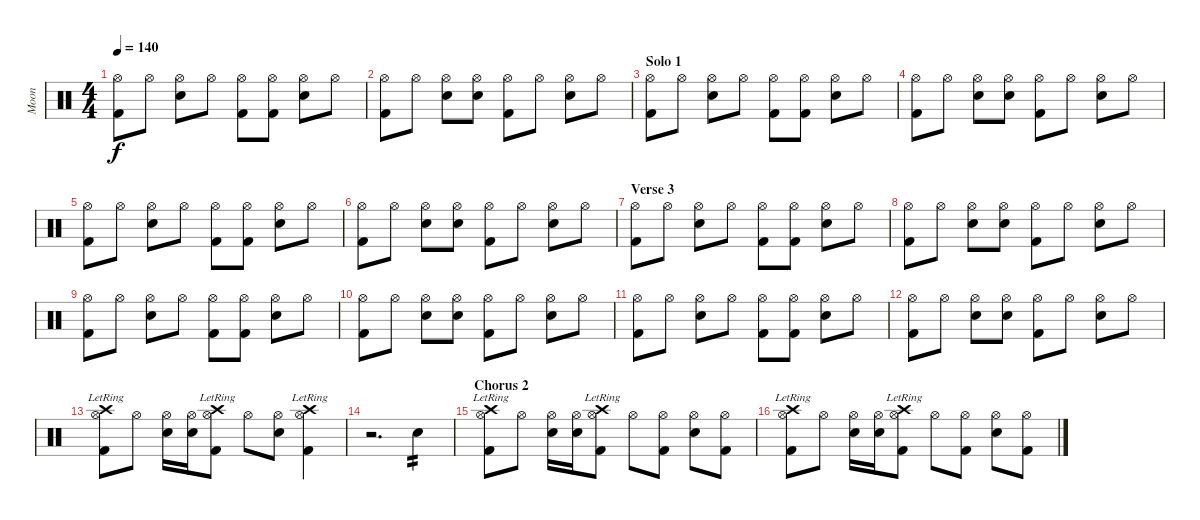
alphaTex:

\track ("Moon" "Moon") {instrument percussion}
\staff {score}
\articulation defaults
\ts (4 4)
\tempo 140
\clef neutral
\ks c
("Hi-Hat (open)" "Kick (hit) 2").8{dy f} "Hi-Hat (open)".8 ("Hi-Hat (open)" "Snare (hit) 2").8 "Hi-Hat (open)".8 ("Hi-Hat (open)" "Kick (hit) 2").8 ("Hi-Hat (open)" "Kick (hit) 2").8 ("Hi-Hat (open)" "Snare (hit) 2").8 "Hi-Hat (open)".8 |
("Hi-Hat (open)" "Kick (hit) 2").8 "Hi-Hat (open)".8 ("Hi-Hat (open)" "Snare (hit) 2").8 ("Hi-Hat (open)" "Snare (hit) 2").8 ("Hi-Hat (open)" "Kick (hit) 2").8 "Hi-Hat (open)".8 ("Hi-Hat (open)" "Snare (hit) 2").8 "Hi-Hat (open)".8 |
\section ("" "Solo 1")
("Hi-Hat (open)" "Kick (hit) 2").8 "Hi-Hat (open)".8 ("Hi-Hat (open)" "Snare (hit) 2").8 "Hi-Hat (open)".8 ("Hi-Hat (open)" "Kick (hit) 2").8 ("Hi-Hat (open)" "Kick (hit) 2").8 ("Hi-Hat (open)" "Snare (hit) 2").8 "Hi-Hat (open)".8 |
("Hi-Hat (open)" "Kick (hit) 2").8 "Hi-Hat (open)".8 ("Hi-Hat (open)" "Snare (hit) 2").8 ("Hi-Hat (open)" "Snare (hit) 2").8 ("Hi-Hat (open)" "Kick (hit) 2").8 "Hi-Hat (open)".8 ("Hi-Hat (open)" "Snare (hit) 2").8 "Hi-Hat (open)".8 |
("Hi-Hat (open)" "Kick (hit) 2").8 "Hi-Hat (open)".8 ("Hi-Hat (open)" "Snare (hit) 2").8 "Hi-Hat (open)".8 ("Hi-Hat (open)" "Kick (hit) 2").8 ("Hi-Hat (open)" "Kick (hit) 2").8 ("Hi-Hat (open)" "Snare (hit) 2").8 "Hi-Hat (open)".8 |
("Hi-Hat (open)" "Kick (hit) 2").8 "Hi-Hat (open)".8 ("Hi-Hat (open)" "Snare (hit) 2").8 ("Hi-Hat (open)" "Snare (hit) 2").8 ("Hi-Hat (open)" "Kick (hit) 2").8 "Hi-Hat (open)".8 ("Hi-Hat (open)" "Snare (hit) 2").8 "Hi-Hat (open)".8 |
\section ("" "Verse 3")
("Hi-Hat (open)" "Kick (hit) 2").8 "Hi-Hat (open)".8 ("Hi-Hat (open)" "Snare (hit) 2").8 "Hi-Hat (open)".8 ("Hi-Hat (open)" "Kick (hit) 2").8 ("Hi-Hat (open)" "Kick (hit) 2").8 ("Hi-Hat (open)" "Snare (hit) 2").8 "Hi-Hat (open)".8 |
("Hi-Hat (open)" "Kick (hit) 2").8 "Hi-Hat (open)".8 ("Hi-Hat (open)" "Snare (hit) 2").8 ("Hi-Hat (open)" "Snare (hit) 2").8 ("Hi-Hat (open)" "Kick (hit) 2").8 "Hi-Hat (open)".8 ("Hi-Hat (open)" "Snare (hit) 2").8 "Hi-Hat (open)".8 |
("Hi-Hat (open)" "Kick (hit) 2").8 "Hi-Hat (open)".8 ("Hi-Hat (open)" "Snare (hit) 2").8 "Hi-Hat (open)".8 ("Hi-Hat (open)" "Kick (hit) 2").8 ("Hi-Hat (open)" "Kick (hit) 2").8 ("Hi-Hat (open)" "Snare (hit) 2").8 "Hi-Hat (open)".8 |
("Hi-Hat (open)" "Kick (hit) 2").8 "Hi-Hat (open)".8 ("Hi-Hat (open)" "Snare (hit) 2").8 ("Hi-Hat (open)" "Snare (hit) 2").8 ("Hi-Hat (open)" "Kick (hit) 2").8 "Hi-Hat (open)".8 ("Hi-Hat (open)" "Snare (hit) 2").8 "Hi-Hat (open)".8 |
("Hi-Hat (open)" "Kick (hit) 2").8 "Hi-Hat (open)".8 ("Hi-Hat (open)" "Snare (hit) 2").8 "Hi-Hat (open)".8 ("Hi-Hat (open)" "Kick (hit) 2").8 ("Hi-Hat (open)" "Kick (hit) 2").8 ("Hi-Hat (open)" "Snare (hit) 2").8 "Hi-Hat (open)".8 |
("Hi-Hat (open)" "Kick (hit) 2").8 "Hi-Hat (open)".8 ("Hi-Hat (open)" "Snare (hit) 2").8 ("Hi-Hat (open)" "Snare (hit) 2").8 ("Hi-Hat (open)" "Kick (hit) 2").8 "Hi-Hat (open)".8 ("Hi-Hat (open)" "Snare (hit) 2").8 "Hi-Hat (open)".8 |
("Hi-Hat (open)" "Kick (hit) 2" "Crash high (hit)"{lr}).8 "Hi-Hat (open)".8 ("Hi-Hat (open)" "Snare (hit) 2").16 ("Hi-Hat (open)" "Snare (hit) 2").16 ("Hi-Hat (open)" "Kick (hit) 2" "Crash high (hit)"{lr}).8 "Hi-Hat (open)".8 ("Hi-Hat (open)" "Snare (hit) 2").8 ("Hi-Hat (open)" "Kick (hit) 2" "Crash high (hit)"{lr}).4 |
r.2{d} "Snare (hit) 2".4{tp 2} |
\section ("" "Chorus 2")
("Hi-Hat (open)" "Kick (hit) 2" "Crash high (hit)"{lr}).8 "Hi-Hat (open)".8 ("Hi-Hat (open)" "Snare (hit) 2").16 ("Hi-Hat (open)" "Snare (hit) 2").16 ("Hi-Hat (open)" "Kick (hit) 2" "Crash high (hit)"{lr}).8 "Hi-Hat (open)".8 ("Hi-Hat (open)" "Kick (hit) 2").8 ("Hi-Hat (open)" "Snare (hit) 2").8 ("Hi-Hat (open)" "Kick (hit) 2").8 |
("Hi-Hat (open)" "Kick (hit) 2" "Crash high (hit)"{lr}).8 "Hi-Hat (open)".8 ("Hi-Hat (open)" "Snare (hit) 2").16 ("Hi-Hat (open)" "Snare (hit) 2").16 ("Hi-Hat (open)" "Kick (hit) 2" "Crash high (hit)"{lr}).8 "Hi-Hat (open)".8 ("Hi-Hat (open)" "Kick (hit) 2").8 ("Hi-Hat (open)" "Snare (hit) 2").8 ("Hi-Hat (open)" "Kick (hit) 2").8
